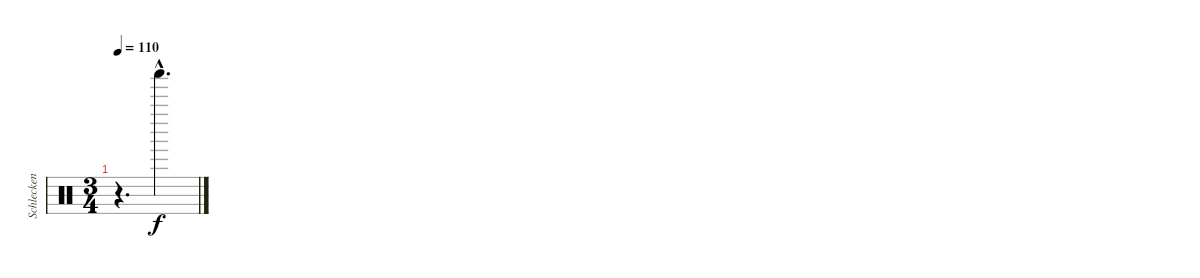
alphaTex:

\track ("Schlecken (Bela)" "Schlecken ") {instrument percussion}
\staff {score}
\articulation defaults
\ts (3 4)
\tempo 110
\clef neutral
\ks c
r.4{d dy f} "Shaker (hit)"{hac}.4{d}
